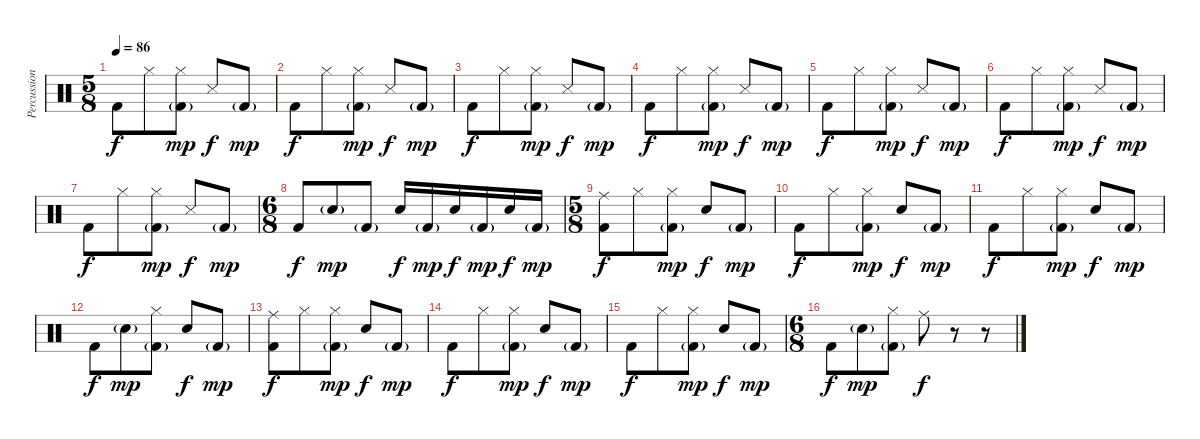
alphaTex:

\track ("Percussion" "Percussion") {instrument percussion}
\staff {score}
\articulation defaults
\ts (5 8)
\tempo 86
\clef neutral
\ks c "Kick (hit) 2".8{dy f} "Hi-Hat (closed)".8
("Hi-Hat (closed)" "Kick (hit) 2"{g}).8{dy mp} "Snare (side stick) 3".8{dy f} "Kick (hit) 2"{g}.8{dy mp} |
"Kick (hit) 2".8{dy f} "Hi-Hat (closed)".8 ("Hi-Hat (closed)" "Kick (hit) 2"{g}).8{dy mp} "Snare (side stick) 3".8{dy f} "Kick (hit) 2"{g}.8{dy mp} |
"Kick (hit) 2".8{dy f} "Hi-Hat (closed)".8 ("Hi-Hat (closed)" "Kick (hit) 2"{g}).8{dy mp} "Snare (side stick) 3".8{dy f} "Kick (hit) 2"{g}.8{dy mp} |
"Kick (hit) 2".8{dy f} "Hi-Hat (closed)".8 ("Hi-Hat (closed)" "Kick (hit) 2"{g}).8{dy mp} "Snare (side stick) 3".8{dy f} "Kick (hit) 2"{g}.8{dy mp} |
"Kick (hit) 2".8{dy f} "Hi-Hat (closed)".8 ("Hi-Hat (closed)" "Kick (hit) 2"{g}).8{dy mp} "Snare (side stick) 3".8{dy f} "Kick (hit) 2"{g}.8{dy mp} |
"Kick (hit) 2".8{dy f} "Hi-Hat (closed)".8 ("Hi-Hat (closed)" "Kick (hit) 2"{g}).8{dy mp} "Snare (side stick) 3".8{dy f} "Kick (hit) 2"{g}.8{dy mp} |
"Kick (hit) 2".8{dy f} "Hi-Hat (closed)".8 ("Hi-Hat (closed)" "Kick (hit) 2"{g}).8{dy mp} "Snare (side stick) 3".8{dy f} "Kick (hit) 2"{g}.8{dy mp} |
\ts (6 8)
"Kick (hit) 2".8{dy f} "Snare (hit) 2"{g}.8{dy mp} "Kick (hit) 2"{g}.8 "Snare (hit) 2".16{dy f} "Kick (hit) 2"{g}.16{dy mp} "Snare (hit) 2".16{dy f} "Kick (hit) 2"{g}.16{dy mp} "Snare (hit) 2".16{dy f} "Kick (hit) 2"{g}.16{dy mp} |
\ts (5 8)
("Ride (middle)" "Kick (hit) 2").8{dy f} "Hi-Hat (closed)".8 ("Hi-Hat (closed)" "Kick (hit) 2"{g}).8{dy mp} "Snare (hit) 2".8{dy f} "Kick (hit) 2"{g}.8{dy mp} |
"Kick (hit) 2".8{dy f} "Hi-Hat (closed)".8 ("Hi-Hat (closed)" "Kick (hit) 2"{g}).8{dy mp} "Snare (hit) 2".8{dy f} "Kick (hit) 2"{g}.8{dy mp} |
"Kick (hit) 2".8{dy f} "Hi-Hat (closed)".8 ("Hi-Hat (closed)" "Kick (hit) 2"{g}).8{dy mp} "Snare (hit) 2".8{dy f} "Kick (hit) 2"{g}.8{dy mp} |
"Kick (hit) 2".8{dy f} "Snare (hit) 2"{g}.8{dy mp} ("Hi-Hat (closed)" "Kick (hit) 2"{g}).8 "Snare (hit) 2".8{dy f} "Kick (hit) 2"{g}.8{dy mp} |
("Ride (middle)" "Kick (hit) 2").8{dy f} "Hi-Hat (closed)".8 ("Hi-Hat (closed)" "Kick (hit) 2"{g}).8{dy mp} "Snare (hit) 2".8{dy f} "Kick (hit) 2"{g}.8{dy mp} |
"Kick (hit) 2".8{dy f} "Hi-Hat (closed)".8 ("Hi-Hat (closed)" "Kick (hit) 2"{g}).8{dy mp} "Snare (hit) 2".8{dy f} "Kick (hit) 2"{g}.8{dy mp} |
"Kick (hit) 2".8{dy f} "Hi-Hat (closed)".8 ("Hi-Hat (closed)" "Kick (hit) 2"{g}).8{dy mp} "Snare (hit) 2".8{dy f} "Kick (hit) 2"{g}.8{dy mp} |
\ts (6 8)
"Kick (hit) 2".8{dy f} "Snare (hit) 2"{g}.8{dy mp} ("Hi-Hat (closed)" "Kick (hit) 2"{g}).8 "Ride (middle)".8{dy f} r.8 r.8
